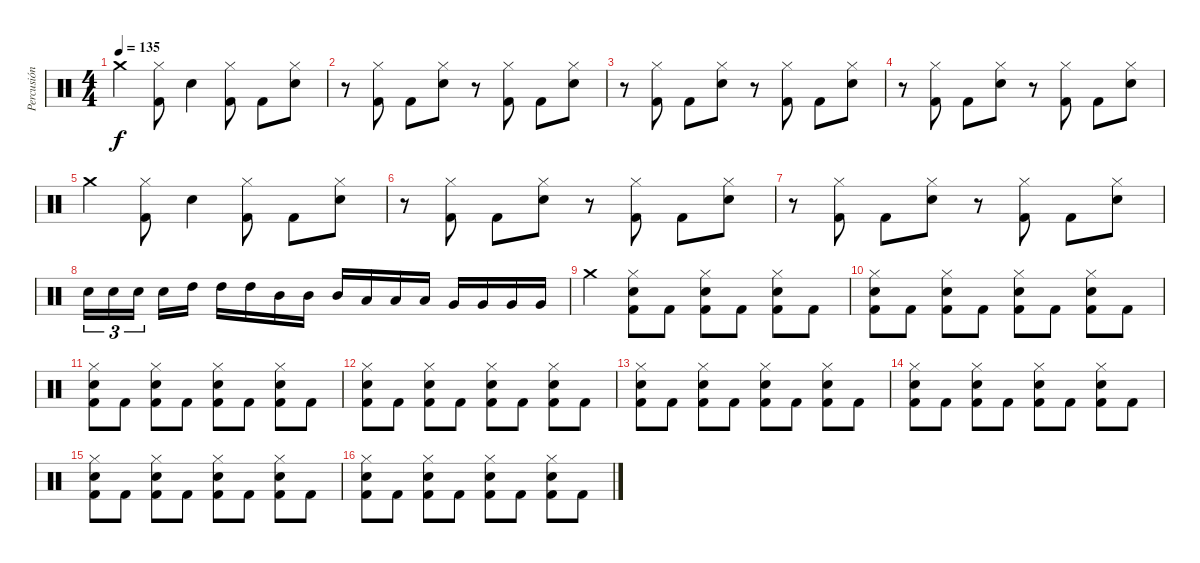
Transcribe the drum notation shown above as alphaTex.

\track ("Percusión" "Percusión") {instrument percussion}
\staff {score}
\articulation defaults
\ts (4 4)
\tempo 135
\clef neutral
\ks c "Crash medium (hit)".4{dy f}
("Hi-Hat (closed)" "Kick (hit) 2").8 "Snare (hit) 2".4 ("Hi-Hat (closed)" "Kick (hit) 2").8 "Kick (hit) 2".8 ("Snare (hit) 2" "Hi-Hat (closed)").8 |
r.8 ("Hi-Hat (closed)" "Kick (hit) 2").8 "Kick (hit) 2".8 ("Snare (hit) 2" "Hi-Hat (closed)").8 r.8 ("Hi-Hat (closed)" "Kick (hit) 2").8 "Kick (hit) 2".8 ("Snare (hit) 2" "Hi-Hat (closed)").8 |
r.8 ("Hi-Hat (closed)" "Kick (hit) 2").8 "Kick (hit) 2".8 ("Snare (hit) 2" "Hi-Hat (closed)").8 r.8 ("Hi-Hat (closed)" "Kick (hit) 2").8 "Kick (hit) 2".8 ("Snare (hit) 2" "Hi-Hat (closed)").8 |
r.8 ("Hi-Hat (closed)" "Kick (hit) 2").8 "Kick (hit) 2".8 ("Snare (hit) 2" "Hi-Hat (closed)").8 r.8 ("Hi-Hat (closed)" "Kick (hit) 2").8 "Kick (hit) 2".8 ("Snare (hit) 2" "Hi-Hat (closed)").8 |
"Crash medium (hit)".4 ("Hi-Hat (closed)" "Kick (hit) 2").8 "Snare (hit) 2".4 ("Hi-Hat (closed)" "Kick (hit) 2").8 "Kick (hit) 2".8 ("Snare (hit) 2" "Hi-Hat (closed)").8 |
r.8 ("Hi-Hat (closed)" "Kick (hit) 2").8 "Kick (hit) 2".8 ("Snare (hit) 2" "Hi-Hat (closed)").8 r.8 ("Hi-Hat (closed)" "Kick (hit) 2").8 "Kick (hit) 2".8 ("Snare (hit) 2" "Hi-Hat (closed)").8 |
r.8 ("Hi-Hat (closed)" "Kick (hit) 2").8 "Kick (hit) 2".8 ("Snare (hit) 2" "Hi-Hat (closed)").8 r.8 ("Hi-Hat (closed)" "Kick (hit) 2").8 "Kick (hit) 2".8 ("Snare (hit) 2" "Hi-Hat (closed)").8 |
"Electric Snare (hit)".16{tu (3 2)} "Electric Snare (hit)".16{tu (3 2)} "Electric Snare (hit)".16{tu (3 2) beam splitsecondary} "Electric Snare (hit)".16 "High Tom (hit)".16 "High Tom (hit)".16 "High Tom (hit)".16 "Mid Tom (hit)".16 "Mid Tom (hit)".16 "Mid Tom (hit)".16 "Low Tom (hit)".16 "Low Tom (hit)".16 "Low Tom (hit)".16 "Very Low Tom (hit)".16 "Very Low Tom (hit)".16 "Very Low Tom (hit)".16 "Very Low Tom (hit)".16 |
"Crash medium (hit)".4 ("Snare (hit) 2" "Hi-Hat (closed)" "Kick (hit) 2").8 "Kick (hit) 2".8 ("Snare (hit) 2" "Hi-Hat (closed)" "Kick (hit) 2").8 "Kick (hit) 2".8 ("Snare (hit) 2" "Hi-Hat (closed)" "Kick (hit) 2").8 "Kick (hit) 2".8 |
("Snare (hit) 2" "Hi-Hat (closed)" "Kick (hit) 2").8 "Kick (hit) 2".8 ("Snare (hit) 2" "Hi-Hat (closed)" "Kick (hit) 2").8 "Kick (hit) 2".8 ("Snare (hit) 2" "Hi-Hat (closed)" "Kick (hit) 2").8 "Kick (hit) 2".8 ("Snare (hit) 2" "Hi-Hat (closed)" "Kick (hit) 2").8 "Kick (hit) 2".8 |
("Snare (hit) 2" "Hi-Hat (closed)" "Kick (hit) 2").8 "Kick (hit) 2".8 ("Snare (hit) 2" "Hi-Hat (closed)" "Kick (hit) 2").8 "Kick (hit) 2".8 ("Snare (hit) 2" "Hi-Hat (closed)" "Kick (hit) 2").8 "Kick (hit) 2".8 ("Snare (hit) 2" "Hi-Hat (closed)" "Kick (hit) 2").8 "Kick (hit) 2".8 |
("Snare (hit) 2" "Hi-Hat (closed)" "Kick (hit) 2").8 "Kick (hit) 2".8 ("Snare (hit) 2" "Hi-Hat (closed)" "Kick (hit) 2").8 "Kick (hit) 2".8 ("Snare (hit) 2" "Hi-Hat (closed)" "Kick (hit) 2").8 "Kick (hit) 2".8 ("Snare (hit) 2" "Hi-Hat (closed)" "Kick (hit) 2").8 "Kick (hit) 2".8 |
("Snare (hit) 2" "Hi-Hat (closed)" "Kick (hit) 2").8 "Kick (hit) 2".8 ("Snare (hit) 2" "Hi-Hat (closed)" "Kick (hit) 2").8 "Kick (hit) 2".8 ("Snare (hit) 2" "Hi-Hat (closed)" "Kick (hit) 2").8 "Kick (hit) 2".8 ("Snare (hit) 2" "Hi-Hat (closed)" "Kick (hit) 2").8 "Kick (hit) 2".8 |
("Snare (hit) 2" "Hi-Hat (closed)" "Kick (hit) 2").8 "Kick (hit) 2".8 ("Snare (hit) 2" "Hi-Hat (closed)" "Kick (hit) 2").8 "Kick (hit) 2".8 ("Snare (hit) 2" "Hi-Hat (closed)" "Kick (hit) 2").8 "Kick (hit) 2".8 ("Snare (hit) 2" "Hi-Hat (closed)" "Kick (hit) 2").8 "Kick (hit) 2".8 |
("Snare (hit) 2" "Hi-Hat (closed)" "Kick (hit) 2").8 "Kick (hit) 2".8 ("Snare (hit) 2" "Hi-Hat (closed)" "Kick (hit) 2").8 "Kick (hit) 2".8 ("Snare (hit) 2" "Hi-Hat (closed)" "Kick (hit) 2").8 "Kick (hit) 2".8 ("Snare (hit) 2" "Hi-Hat (closed)" "Kick (hit) 2").8 "Kick (hit) 2".8 |
("Snare (hit) 2" "Hi-Hat (closed)" "Kick (hit) 2").8 "Kick (hit) 2".8 ("Snare (hit) 2" "Hi-Hat (closed)" "Kick (hit) 2").8 "Kick (hit) 2".8 ("Snare (hit) 2" "Hi-Hat (closed)" "Kick (hit) 2").8 "Kick (hit) 2".8 ("Snare (hit) 2" "Hi-Hat (closed)" "Kick (hit) 2").8 "Kick (hit) 2".8
